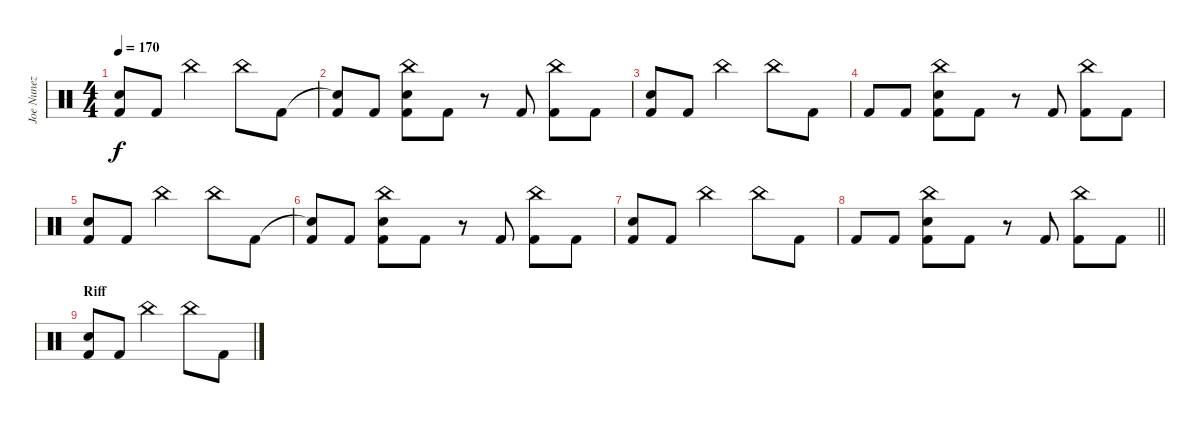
\track ("Joe Nunez" "Joe Nunez") {instrument percussion}
\staff {score}
\articulation defaults
\ts (4 4)
\tempo 170
\clef neutral
\ks c
("Electric Snare (hit)" "Kick (hit) 2").8{dy f} "Kick (hit) 2".8 "China (hit)".2 "China (hit)".8 "Kick (hit) 2".8 |
("Snare (hit)"{t} "Kick (hit) 2").8 "Kick (hit) 2".8 ("China (hit)" "Electric Snare (hit)" "Kick (hit) 2").8 "Kick (hit) 2".8 r.8 "Kick (hit) 2".8 ("China (hit)" "Kick (hit) 2").8 "Kick (hit) 2".8 |
("Electric Snare (hit)" "Kick (hit) 2").8 "Kick (hit) 2".8 "China (hit)".2 "China (hit)".8 "Kick (hit) 2".8 |
"Kick (hit) 2".8 "Kick (hit) 2".8 ("China (hit)" "Electric Snare (hit)" "Kick (hit) 2").8 "Kick (hit) 2".8 r.8 "Kick (hit) 2".8 ("China (hit)" "Kick (hit) 2").8 "Kick (hit) 2".8 |
("Electric Snare (hit)" "Kick (hit) 2").8 "Kick (hit) 2".8 "China (hit)".2 "China (hit)".8 "Kick (hit) 2".8 |
("Snare (hit)"{t} "Kick (hit) 2").8 "Kick (hit) 2".8 ("China (hit)" "Electric Snare (hit)" "Kick (hit) 2").8 "Kick (hit) 2".8 r.8 "Kick (hit) 2".8 ("China (hit)" "Kick (hit) 2").8 "Kick (hit) 2".8 |
("Electric Snare (hit)" "Kick (hit) 2").8 "Kick (hit) 2".8 "China (hit)".2 "China (hit)".8 "Kick (hit) 2".8 |
\barLineRight lightlight "Kick (hit) 2".8 "Kick (hit) 2".8
("China (hit)" "Electric Snare (hit)" "Kick (hit) 2").8 "Kick (hit) 2".8 r.8 "Kick (hit) 2".8 ("China (hit)" "Kick (hit) 2").8 "Kick (hit) 2".8 |
\section ("" "Riff ")
("Electric Snare (hit)" "Kick (hit) 2").8 "Kick (hit) 2".8 "China (hit)".2 "China (hit)".8 "Kick (hit) 2".8
